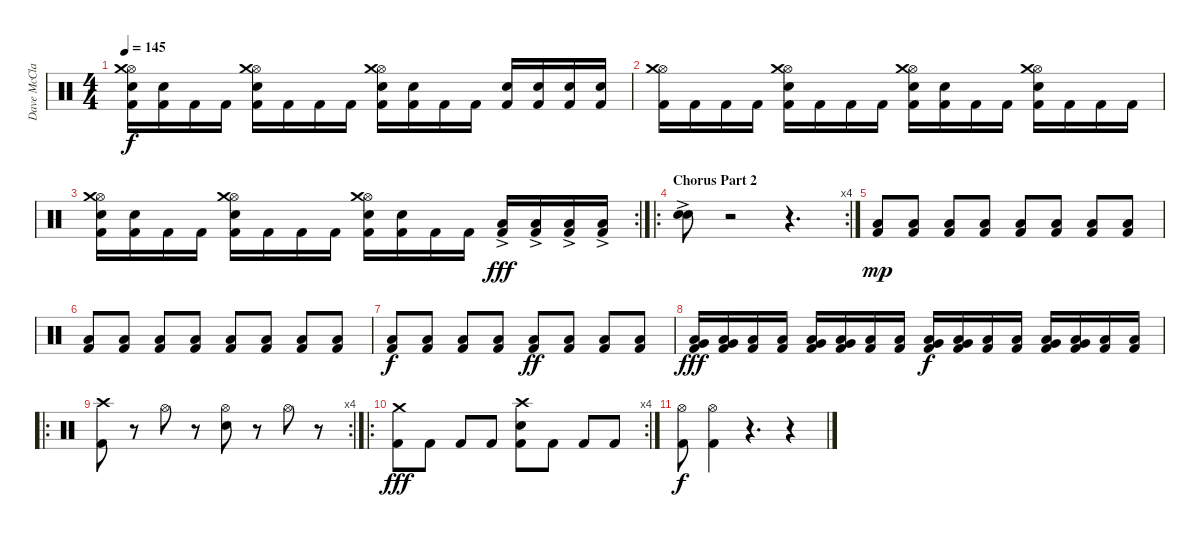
\track ("Dave McClain" "Dave McCla") {instrument percussion}
\staff {score}
\articulation defaults
\ts (4 4)
\tempo 145
\clef neutral
\ks c
("Hi-Hat (open)" "Crash medium (hit)" "Snare (hit) 2" "Kick (hit) 2").16{dy f} ("Snare (hit) 2" "Kick (hit) 2").16 "Kick (hit) 2".16 "Kick (hit) 2".16 ("Hi-Hat (open)" "Crash medium (hit)" "Snare (hit) 2" "Kick (hit) 2").16 "Kick (hit) 2".16 "Kick (hit) 2".16 "Kick (hit) 2".16 ("Hi-Hat (open)" "Crash medium (hit)" "Snare (hit) 2" "Kick (hit) 2").16 ("Snare (hit) 2" "Kick (hit) 2").16 "Kick (hit) 2".16 "Kick (hit) 2".16 ("Snare (hit) 2" "Kick (hit) 2").16 ("Snare (hit) 2" "Kick (hit) 2").16 ("Snare (hit) 2" "Kick (hit) 2").16 ("Snare (hit) 2" "Kick (hit) 2").16 |
("Hi-Hat (open)" "Crash medium (hit)" "Kick (hit) 2").16 "Kick (hit) 2".16 "Kick (hit) 2".16 "Kick (hit) 2".16 ("Hi-Hat (open)" "Crash medium (hit)" "Snare (hit) 2" "Kick (hit) 2").16 "Kick (hit) 2".16 "Kick (hit) 2".16 "Kick (hit) 2".16 ("Hi-Hat (open)" "Crash medium (hit)" "Snare (hit) 2" "Kick (hit) 2").16 ("Snare (hit) 2" "Kick (hit) 2").16 "Kick (hit) 2".16 "Kick (hit) 2".16 ("Hi-Hat (open)" "Crash medium (hit)" "Snare (hit) 2" "Kick (hit) 2").16 "Kick (hit) 2".16 "Kick (hit) 2".16 "Kick (hit) 2".16 |
\rc 2
("Hi-Hat (open)" "Crash medium (hit)" "Snare (hit) 2" "Kick (hit) 2").16 ("Snare (hit) 2" "Kick (hit) 2").16 "Kick (hit) 2".16 "Kick (hit) 2".16 ("Hi-Hat (open)" "Crash medium (hit)" "Snare (hit) 2" "Kick (hit) 2").16 "Kick (hit) 2".16 "Kick (hit) 2".16 "Kick (hit) 2".16 ("Hi-Hat (open)" "Crash medium (hit)" "Snare (hit) 2" "Kick (hit) 2").16 ("Snare (hit) 2" "Kick (hit) 2").16 "Kick (hit) 2".16 "Kick (hit) 2".16 ("Low Tom (hit)"{ac} "Kick (hit) 2").16{dy fff} ("Low Tom (hit)"{ac} "Kick (hit) 2").16 ("Low Tom (hit)"{ac} "Kick (hit) 2").16 ("Low Tom (hit)"{ac} "Kick (hit) 2").16 |
\ro
\rc 4
\section ("" "Chorus Part 2")
("Snare (hit) 2"{ac} "Snare (hit) 2"{ac}).8 r.2 r.4{d} |
("Low Floor Tom (hit)" "Kick (hit) 2").8{dy mp} ("Low Floor Tom (hit)" "Kick (hit) 2").8 ("Low Floor Tom (hit)" "Kick (hit) 2").8 ("Low Floor Tom (hit)" "Kick (hit) 2").8 ("Low Floor Tom (hit)" "Kick (hit) 2").8 ("Low Floor Tom (hit)" "Kick (hit) 2").8 ("Low Floor Tom (hit)" "Kick (hit) 2").8 ("Low Floor Tom (hit)" "Kick (hit) 2").8 |
("Low Floor Tom (hit)" "Kick (hit) 2").8 ("Low Floor Tom (hit)" "Kick (hit) 2").8 ("Low Floor Tom (hit)" "Kick (hit) 2").8 ("Low Floor Tom (hit)" "Kick (hit) 2").8 ("Low Floor Tom (hit)" "Kick (hit) 2").8 ("Low Floor Tom (hit)" "Kick (hit) 2").8 ("Low Floor Tom (hit)" "Kick (hit) 2").8 ("Low Floor Tom (hit)" "Kick (hit) 2").8 |
("Low Floor Tom (hit)" "Kick (hit) 2").8{dy f} ("Low Floor Tom (hit)" "Kick (hit) 2").8 ("Low Floor Tom (hit)" "Kick (hit) 2").8 ("Low Floor Tom (hit)" "Kick (hit) 2").8 ("Low Floor Tom (hit)" "Kick (hit) 2").8{dy ff} ("Low Floor Tom (hit)" "Kick (hit) 2").8 ("Low Floor Tom (hit)" "Kick (hit) 2").8 ("Low Floor Tom (hit)" "Kick (hit) 2").8 |
("Very Low Tom (hit)" "Low Floor Tom (hit)" "Kick (hit) 2").16{dy fff} ("Very Low Tom (hit)" "Low Floor Tom (hit)" "Kick (hit) 2").16 ("Low Floor Tom (hit)" "Kick (hit) 2").16 ("Low Floor Tom (hit)" "Kick (hit) 2").16 ("Very Low Tom (hit)" "Low Floor Tom (hit)" "Kick (hit) 2").16 ("Very Low Tom (hit)" "Low Floor Tom (hit)" "Kick (hit) 2").16 ("Low Floor Tom (hit)" "Kick (hit) 2").16 ("Low Floor Tom (hit)" "Kick (hit) 2").16 ("Very Low Tom (hit)" "Low Floor Tom (hit)" "Kick (hit) 2").16{dy f} ("Very Low Tom (hit)" "Low Floor Tom (hit)" "Kick (hit) 2").16 ("Low Floor Tom (hit)" "Kick (hit) 2").16 ("Low Floor Tom (hit)" "Kick (hit) 2").16 ("Very Low Tom (hit)" "Low Floor Tom (hit)" "Kick (hit) 2").16 ("Very Low Tom (hit)" "Low Floor Tom (hit)" "Kick (hit) 2").16 ("Low Floor Tom (hit)" "Kick (hit) 2").16 ("Low Floor Tom (hit)" "Kick (hit) 2").16 |
\ro
\rc 4
("Crash high (hit)" "Kick (hit) 2").8 r.8 "Hi-Hat (open)".8 r.8 ("Hi-Hat (open)" "Snare (hit) 2").8 r.8 "Hi-Hat (open)".8 r.8 |
\ro
\rc 4
("Crash medium (hit)" "Kick (hit) 2").8{dy fff} "Kick (hit) 2".8 "Kick (hit) 2".8 "Kick (hit) 2".8 ("Crash high (hit)" "Snare (hit) 2" "Kick (hit) 2").8 "Kick (hit) 2".8 "Kick (hit) 2".8 "Kick (hit) 2".8 |
("Hi-Hat (open)" "Kick (hit) 2").8{dy f} ("Hi-Hat (open)" "Kick (hit) 2").4 r.4{d} r.4
